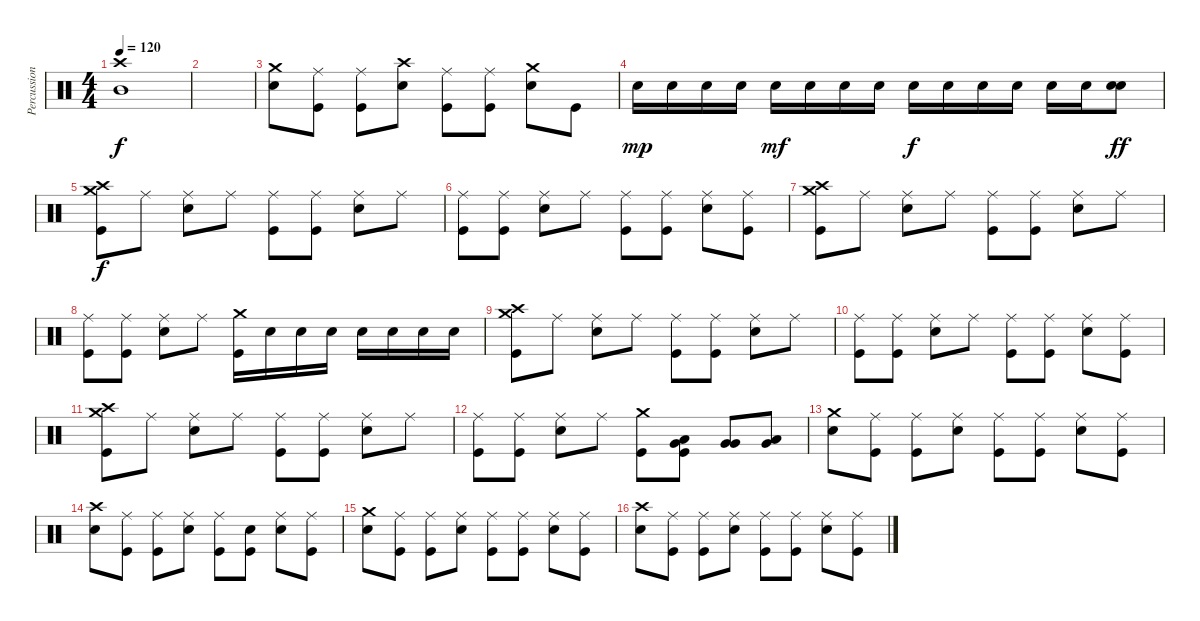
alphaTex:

\track ("Percussion" "Percussion") {instrument percussion}
\staff {score}
\articulation defaults
\ts (4 4)
\tempo 120
\clef neutral
\ks c
("Crash high (hit)"{t} "Mid Tom (hit)"{t}).1{dy f} |
|
("Crash medium (hit)" "Snare (hit) 2").8 ("Ride (middle)" "Kick (hit)").8 ("Ride (middle)" "Kick (hit)").8 ("Crash high (hit)" "Snare (hit) 2").8 ("Ride (middle)" "Kick (hit)").8 ("Ride (middle)" "Kick (hit)").8 ("Crash medium (hit)" "Snare (hit) 2").8 "Kick (hit)".8 |
"Snare (hit) 2".16{dy mp} "Snare (hit) 2".16 "Snare (hit) 2".16 "Snare (hit) 2".16 "Snare (hit) 2".16{dy mf} "Snare (hit) 2".16 "Snare (hit) 2".16 "Snare (hit) 2".16 "Snare (hit) 2".16{dy f} "Snare (hit) 2".16 "Snare (hit) 2".16 "Snare (hit) 2".16 "Snare (hit) 2".16 "Snare (hit) 2".16 ("Snare (hit) 2" "Snare (hit) 2").8{dy ff} |
("Crash high (hit)" "Crash medium (hit)" "Kick (hit)").8{dy f} "Ride (middle)".8 ("Ride (middle)" "Snare (hit) 2").8 "Ride (middle)".8 ("Ride (middle)" "Kick (hit)").8 ("Ride (middle)" "Kick (hit)").8 ("Ride (middle)" "Snare (hit) 2").8 "Ride (middle)".8 |
("Ride (middle)" "Kick (hit)").8 ("Ride (middle)" "Kick (hit)").8 ("Ride (middle)" "Snare (hit) 2").8 "Ride (middle)".8 ("Ride (middle)" "Kick (hit)").8 ("Ride (middle)" "Kick (hit)").8 ("Ride (middle)" "Snare (hit) 2").8 ("Ride (middle)" "Kick (hit)").8 |
("Crash high (hit)" "Crash medium (hit)" "Kick (hit)").8 "Ride (middle)".8 ("Ride (middle)" "Snare (hit) 2").8 "Ride (middle)".8 ("Ride (middle)" "Kick (hit)").8 ("Ride (middle)" "Kick (hit)").8 ("Ride (middle)" "Snare (hit) 2").8 "Ride (middle)".8 |
("Ride (middle)" "Kick (hit)").8 ("Ride (middle)" "Kick (hit)").8 ("Ride (middle)" "Snare (hit) 2").8 "Ride (middle)".8 ("Crash medium (hit)" "Kick (hit)").16 "Snare (hit) 2".16 "Snare (hit) 2".16 "Snare (hit) 2".16 "Snare (hit) 2".16 "Snare (hit) 2".16 "Snare (hit) 2".16 "Snare (hit) 2".16 |
("Crash high (hit)" "Crash medium (hit)" "Kick (hit)").8 "Ride (middle)".8 ("Ride (middle)" "Snare (hit) 2").8 "Ride (middle)".8 ("Ride (middle)" "Kick (hit)").8 ("Ride (middle)" "Kick (hit)").8 ("Ride (middle)" "Snare (hit) 2").8 "Ride (middle)".8 |
("Ride (middle)" "Kick (hit)").8 ("Ride (middle)" "Kick (hit)").8 ("Ride (middle)" "Snare (hit) 2").8 "Ride (middle)".8 ("Ride (middle)" "Kick (hit)").8 ("Ride (middle)" "Kick (hit)").8 ("Ride (middle)" "Snare (hit) 2").8 ("Ride (middle)" "Kick (hit)").8 |
("Crash high (hit)" "Crash medium (hit)" "Kick (hit)").8 "Ride (middle)".8 ("Ride (middle)" "Snare (hit) 2").8 "Ride (middle)".8 ("Ride (middle)" "Kick (hit)").8 ("Ride (middle)" "Kick (hit)").8 ("Ride (middle)" "Snare (hit) 2").8 "Ride (middle)".8 |
("Ride (middle)" "Kick (hit)").8 ("Ride (middle)" "Kick (hit)").8 ("Ride (middle)" "Snare (hit) 2").8 "Ride (middle)".8 ("Crash medium (hit)" "Kick (hit)").8 ("Low Tom (hit)" "Very Low Tom (hit)" "Kick (hit)").8 ("Very Low Tom (hit)" "Very Low Tom (hit)").8 ("Very Low Tom (hit)" "Low Floor Tom (hit)").8 |
("Crash medium (hit)" "Snare (hit) 2").8 ("Ride (middle)" "Kick (hit)").8 ("Ride (middle)" "Kick (hit)").8 ("Ride (middle)" "Snare (hit) 2").8 ("Ride (middle)" "Kick (hit)").8 ("Ride (middle)" "Kick (hit)").8 ("Ride (middle)" "Snare (hit) 2").8 ("Ride (middle)" "Kick (hit)").8 |
("Crash high (hit)" "Snare (hit) 2").8 ("Ride (middle)" "Kick (hit)").8 ("Ride (middle)" "Kick (hit)").8 ("Ride (middle)" "Snare (hit) 2").8 ("Ride (middle)" "Kick (hit)").8 ("Snare (hit)" "Kick (hit)").8 ("Ride (middle)" "Snare (hit) 2").8 ("Ride (middle)" "Kick (hit)").8 |
("Crash medium (hit)" "Snare (hit) 2").8 ("Ride (middle)" "Kick (hit)").8 ("Ride (middle)" "Kick (hit)").8 ("Ride (middle)" "Snare (hit) 2").8 ("Ride (middle)" "Kick (hit)").8 ("Ride (middle)" "Kick (hit)").8 ("Ride (middle)" "Snare (hit) 2").8 ("Ride (middle)" "Kick (hit)").8 |
("Crash high (hit)" "Snare (hit) 2").8 ("Ride (middle)" "Kick (hit)").8 ("Ride (middle)" "Kick (hit)").8 ("Ride (middle)" "Snare (hit) 2").8 ("Ride (middle)" "Kick (hit)").8 ("Ride (middle)" "Kick (hit)").8 ("Ride (middle)" "Snare (hit) 2").8 ("Ride (middle)" "Kick (hit)").8
